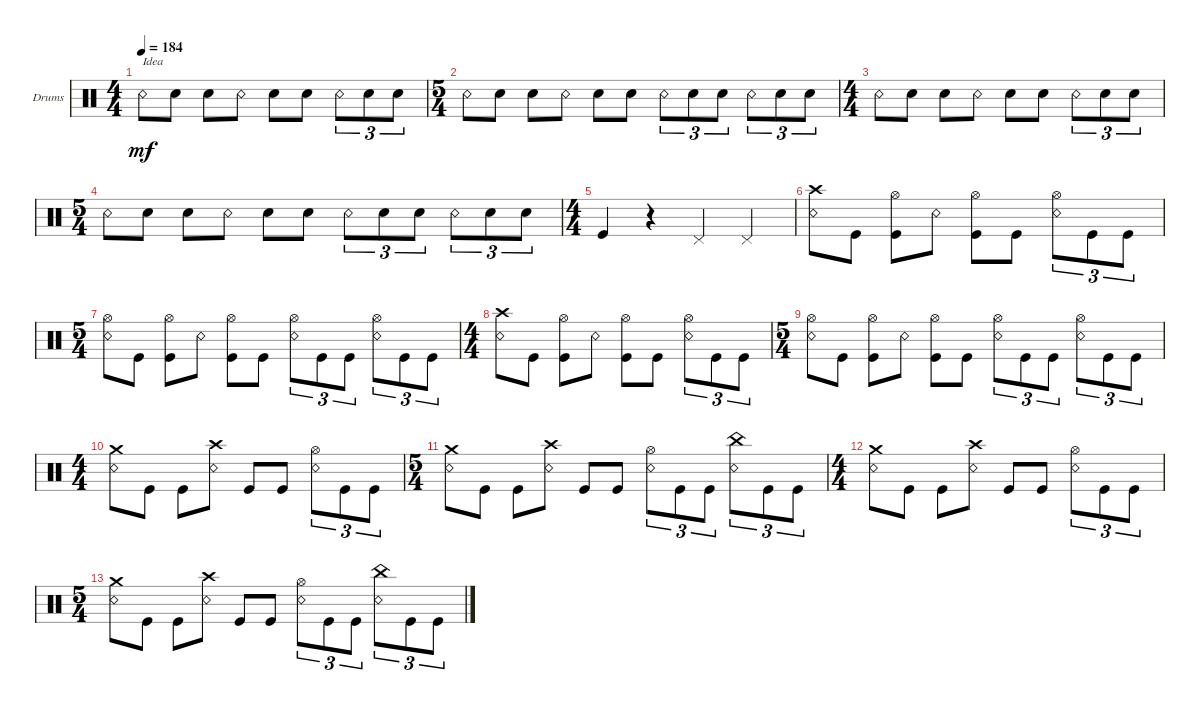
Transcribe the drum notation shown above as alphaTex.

\defaultSystemsLayout 4
\bracketExtendMode groupsimilarinstruments
\firstSystemTrackNameOrientation horizontal
\otherSystemsTrackNameOrientation horizontal
\track ("Drumkit" "Drums") {instrument percussion}
\staff {score}
\articulation defaults
\ts (4 4)
\tempo 184
\clef neutral
\ks c "Snare (rim shot)".8{txt "Idea" dy mf} "Snare (hit) 2".8 "Snare (hit) 2".8 "Snare (rim shot)".8 "Snare (hit) 2".8 "Snare (hit) 2".8 "Snare (rim shot)".8{tu (3 2)} "Snare (hit) 2".8{tu (3 2)} "Snare (hit) 2".8{tu (3 2)}
|
\ts (5 4)
"Snare (rim shot)".8 "Snare (hit) 2".8 "Snare (hit) 2".8 "Snare (rim shot)".8 "Snare (hit) 2".8 "Snare (hit) 2".8 "Snare (rim shot)".8{tu (3 2)} "Snare (hit) 2".8{tu (3 2)} "Snare (hit) 2".8{tu (3 2)} "Snare (rim shot)".8{tu (3 2)} "Snare (hit) 2".8{tu (3 2)} "Snare (hit) 2".8{tu (3 2)} |
\ts (4 4)
"Snare (rim shot)".8 "Snare (hit) 2".8 "Snare (hit) 2".8 "Snare (rim shot)".8 "Snare (hit) 2".8 "Snare (hit) 2".8 "Snare (rim shot)".8{tu (3 2)} "Snare (hit) 2".8{tu (3 2)} "Snare (hit) 2".8{tu (3 2)} |
\ts (5 4)
"Snare (rim shot)".8 "Snare (hit) 2".8 "Snare (hit) 2".8 "Snare (rim shot)".8 "Snare (hit) 2".8 "Snare (hit) 2".8 "Snare (rim shot)".8{tu (3 2)} "Snare (hit) 2".8{tu (3 2)} "Snare (hit) 2".8{tu (3 2)} "Snare (rim shot)".8{tu (3 2)} "Snare (hit) 2".8{tu (3 2)} "Snare (hit) 2".8{tu (3 2)} |
\ts (4 4)
"Kick (hit)".4 r.4 "Pedal Hi-Hat (hit)".4 "Pedal Hi-Hat (hit)".4 |
("Snare (rim shot)" "Crash high (hit)").8 "Kick (hit)".8 ("Kick (hit)" "Hi-Hat (open)").8 "Snare (rim shot)".8 ("Kick (hit)" "Hi-Hat (open)").8 "Kick (hit)".8 ("Snare (rim shot)" "Hi-Hat (open)").8{tu (3 2)} "Kick (hit)".8{tu (3 2)} "Kick (hit)".8{tu (3 2)} |
\ts (5 4)
("Snare (rim shot)" "Hi-Hat (open)").8 "Kick (hit)".8 ("Kick (hit)" "Hi-Hat (open)").8 "Snare (rim shot)".8 ("Kick (hit)" "Hi-Hat (open)").8 "Kick (hit)".8 ("Snare (rim shot)" "Hi-Hat (open)").8{tu (3 2)} "Kick (hit)".8{tu (3 2)} "Kick (hit)".8{tu (3 2)} ("Snare (rim shot)" "Hi-Hat (open)").8{tu (3 2)} "Kick (hit)".8{tu (3 2)} "Kick (hit)".8{tu (3 2)} |
\ts (4 4)
("Snare (rim shot)" "Crash high (hit)").8 "Kick (hit)".8 ("Kick (hit)" "Hi-Hat (open)").8 "Snare (rim shot)".8 ("Kick (hit)" "Hi-Hat (open)").8 "Kick (hit)".8 ("Snare (rim shot)" "Hi-Hat (open)").8{tu (3 2)} "Kick (hit)".8{tu (3 2)} "Kick (hit)".8{tu (3 2)} |
\ts (5 4)
("Snare (rim shot)" "Hi-Hat (open)").8 "Kick (hit)".8 ("Kick (hit)" "Hi-Hat (open)").8 "Snare (rim shot)".8 ("Kick (hit)" "Hi-Hat (open)").8 "Kick (hit)".8 ("Snare (rim shot)" "Hi-Hat (open)").8{tu (3 2)} "Kick (hit)".8{tu (3 2)} "Kick (hit)".8{tu (3 2)} ("Snare (rim shot)" "Hi-Hat (open)").8{tu (3 2)} "Kick (hit)".8{tu (3 2)} "Kick (hit)".8{tu (3 2)} |
\ts (4 4)
("Snare (rim shot)" "Crash medium (hit)").8 "Kick (hit)".8 "Kick (hit)".8 ("Snare (rim shot)" "Crash high (hit)").8 "Kick (hit)".8 "Kick (hit)".8 ("Snare (rim shot)" "Hi-Hat (open)").8{tu (3 2)} "Kick (hit)".8{tu (3 2)} "Kick (hit)".8{tu (3 2)} |
\ts (5 4)
("Snare (rim shot)" "Crash medium (hit)").8 "Kick (hit)".8 "Kick (hit)".8 ("Snare (rim shot)" "Crash high (hit)").8 "Kick (hit)".8 "Kick (hit)".8 ("Snare (rim shot)" "Hi-Hat (open)").8{tu (3 2)} "Kick (hit)".8{tu (3 2)} "Kick (hit)".8{tu (3 2)} ("Snare (rim shot)" "China (hit)").8{tu (3 2)} "Kick (hit)".8{tu (3 2)} "Kick (hit)".8{tu (3 2)} |
\ts (4 4)
("Snare (rim shot)" "Crash medium (hit)").8 "Kick (hit)".8 "Kick (hit)".8 ("Snare (rim shot)" "Crash high (hit)").8 "Kick (hit)".8 "Kick (hit)".8 ("Snare (rim shot)" "Hi-Hat (open)").8{tu (3 2)} "Kick (hit)".8{tu (3 2)} "Kick (hit)".8{tu (3 2)} |
\ts (5 4)
("Snare (rim shot)" "Crash medium (hit)").8 "Kick (hit)".8 "Kick (hit)".8 ("Snare (rim shot)" "Crash high (hit)").8 "Kick (hit)".8 "Kick (hit)".8 ("Snare (rim shot)" "Hi-Hat (open)").8{tu (3 2)} "Kick (hit)".8{tu (3 2)} "Kick (hit)".8{tu (3 2)} ("Snare (rim shot)" "China (hit)").8{tu (3 2)} "Kick (hit)".8{tu (3 2)} "Kick (hit)".8{tu (3 2)}
